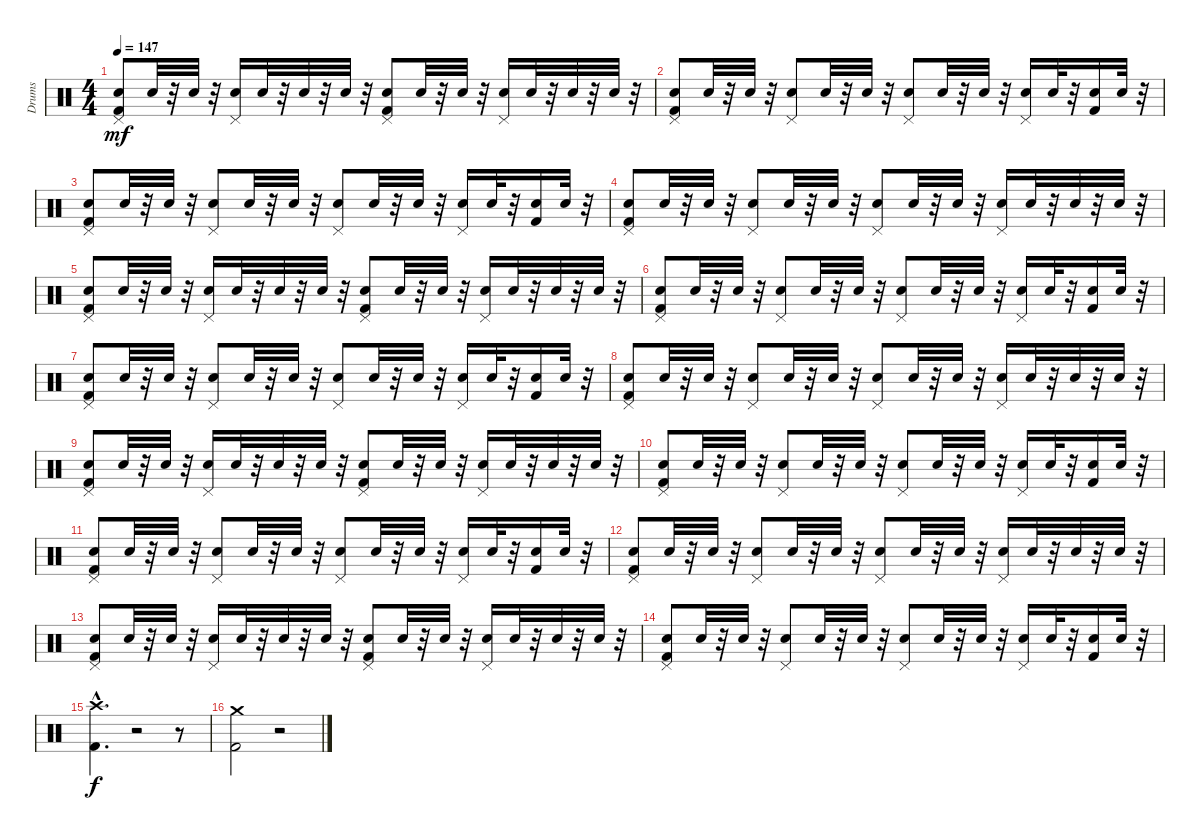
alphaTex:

\track ("Drums" "Drums") {instrument percussion}
\staff {score}
\articulation defaults
\ts (4 4)
\tempo 147
\clef neutral
\ks c
("Pedal Hi-Hat (hit)" "Kick (hit) 2" "Snare (hit) 2").8{dy mf} "Snare (hit) 2".32 r.32 "Snare (hit) 2".32 r.32 ("Pedal Hi-Hat (hit)" "Snare (hit) 2").16 "Snare (hit) 2".32 r.32 "Snare (hit) 2".32 r.32 "Snare (hit) 2".32 r.32 ("Pedal Hi-Hat (hit)" "Kick (hit) 2" "Snare (hit) 2").8 "Snare (hit) 2".32 r.32 "Snare (hit) 2".32 r.32 ("Pedal Hi-Hat (hit)" "Snare (hit) 2").16 "Snare (hit) 2".32 r.32 "Snare (hit) 2".32 r.32 "Snare (hit) 2".32 r.32 |
("Pedal Hi-Hat (hit)" "Kick (hit) 2" "Snare (hit) 2").8 "Snare (hit) 2".32 r.32 "Snare (hit) 2".32 r.32 ("Pedal Hi-Hat (hit)" "Snare (hit) 2").8 "Snare (hit) 2".32 r.32 "Snare (hit) 2".32 r.32 ("Pedal Hi-Hat (hit)" "Snare (hit) 2").8 "Snare (hit) 2".32 r.32 "Snare (hit) 2".32 r.32 ("Pedal Hi-Hat (hit)" "Snare (hit) 2").16 "Snare (hit) 2".32 r.32 ("Kick (hit) 2" "Snare (hit) 2").16 "Snare (hit) 2".32 r.32 |
("Pedal Hi-Hat (hit)" "Kick (hit) 2" "Snare (hit) 2").8 "Snare (hit) 2".32 r.32 "Snare (hit) 2".32 r.32 ("Pedal Hi-Hat (hit)" "Snare (hit) 2").8 "Snare (hit) 2".32 r.32 "Snare (hit) 2".32 r.32 ("Pedal Hi-Hat (hit)" "Snare (hit) 2").8 "Snare (hit) 2".32 r.32 "Snare (hit) 2".32 r.32 ("Pedal Hi-Hat (hit)" "Snare (hit) 2").16 "Snare (hit) 2".32 r.32 ("Kick (hit) 2" "Snare (hit) 2").16 "Snare (hit) 2".32 r.32 |
("Pedal Hi-Hat (hit)" "Kick (hit) 2" "Snare (hit) 2").8 "Snare (hit) 2".32 r.32 "Snare (hit) 2".32 r.32 ("Pedal Hi-Hat (hit)" "Snare (hit) 2").8 "Snare (hit) 2".32 r.32 "Snare (hit) 2".32 r.32 ("Pedal Hi-Hat (hit)" "Snare (hit) 2").8 "Snare (hit) 2".32 r.32 "Snare (hit) 2".32 r.32 ("Pedal Hi-Hat (hit)" "Snare (hit) 2").16 "Snare (hit) 2".32 r.32 "Snare (hit) 2".32 r.32 "Snare (hit) 2".32 r.32 |
("Pedal Hi-Hat (hit)" "Kick (hit) 2" "Snare (hit) 2").8 "Snare (hit) 2".32 r.32 "Snare (hit) 2".32 r.32 ("Pedal Hi-Hat (hit)" "Snare (hit) 2").16 "Snare (hit) 2".32 r.32 "Snare (hit) 2".32 r.32 "Snare (hit) 2".32 r.32 ("Pedal Hi-Hat (hit)" "Kick (hit) 2" "Snare (hit) 2").8 "Snare (hit) 2".32 r.32 "Snare (hit) 2".32 r.32 ("Pedal Hi-Hat (hit)" "Snare (hit) 2").16 "Snare (hit) 2".32 r.32 "Snare (hit) 2".32 r.32 "Snare (hit) 2".32 r.32 |
("Pedal Hi-Hat (hit)" "Kick (hit) 2" "Snare (hit) 2").8 "Snare (hit) 2".32 r.32 "Snare (hit) 2".32 r.32 ("Pedal Hi-Hat (hit)" "Snare (hit) 2").8 "Snare (hit) 2".32 r.32 "Snare (hit) 2".32 r.32 ("Pedal Hi-Hat (hit)" "Snare (hit) 2").8 "Snare (hit) 2".32 r.32 "Snare (hit) 2".32 r.32 ("Pedal Hi-Hat (hit)" "Snare (hit) 2").16 "Snare (hit) 2".32 r.32 ("Kick (hit) 2" "Snare (hit) 2").16 "Snare (hit) 2".32 r.32 |
("Pedal Hi-Hat (hit)" "Kick (hit) 2" "Snare (hit) 2").8 "Snare (hit) 2".32 r.32 "Snare (hit) 2".32 r.32 ("Pedal Hi-Hat (hit)" "Snare (hit) 2").8 "Snare (hit) 2".32 r.32 "Snare (hit) 2".32 r.32 ("Pedal Hi-Hat (hit)" "Snare (hit) 2").8 "Snare (hit) 2".32 r.32 "Snare (hit) 2".32 r.32 ("Pedal Hi-Hat (hit)" "Snare (hit) 2").16 "Snare (hit) 2".32 r.32 ("Kick (hit) 2" "Snare (hit) 2").16 "Snare (hit) 2".32 r.32 |
("Pedal Hi-Hat (hit)" "Kick (hit) 2" "Snare (hit) 2").8 "Snare (hit) 2".32 r.32 "Snare (hit) 2".32 r.32 ("Pedal Hi-Hat (hit)" "Snare (hit) 2").8 "Snare (hit) 2".32 r.32 "Snare (hit) 2".32 r.32 ("Pedal Hi-Hat (hit)" "Snare (hit) 2").8 "Snare (hit) 2".32 r.32 "Snare (hit) 2".32 r.32 ("Pedal Hi-Hat (hit)" "Snare (hit) 2").16 "Snare (hit) 2".32 r.32 "Snare (hit) 2".32 r.32 "Snare (hit) 2".32 r.32 |
("Pedal Hi-Hat (hit)" "Kick (hit) 2" "Snare (hit) 2").8 "Snare (hit) 2".32 r.32 "Snare (hit) 2".32 r.32 ("Pedal Hi-Hat (hit)" "Snare (hit) 2").16 "Snare (hit) 2".32 r.32 "Snare (hit) 2".32 r.32 "Snare (hit) 2".32 r.32 ("Pedal Hi-Hat (hit)" "Kick (hit) 2" "Snare (hit) 2").8 "Snare (hit) 2".32 r.32 "Snare (hit) 2".32 r.32 ("Pedal Hi-Hat (hit)" "Snare (hit) 2").16 "Snare (hit) 2".32 r.32 "Snare (hit) 2".32 r.32 "Snare (hit) 2".32 r.32 |
("Pedal Hi-Hat (hit)" "Kick (hit) 2" "Snare (hit) 2").8 "Snare (hit) 2".32 r.32 "Snare (hit) 2".32 r.32 ("Pedal Hi-Hat (hit)" "Snare (hit) 2").8 "Snare (hit) 2".32 r.32 "Snare (hit) 2".32 r.32 ("Pedal Hi-Hat (hit)" "Snare (hit) 2").8 "Snare (hit) 2".32 r.32 "Snare (hit) 2".32 r.32 ("Pedal Hi-Hat (hit)" "Snare (hit) 2").16 "Snare (hit) 2".32 r.32 ("Kick (hit) 2" "Snare (hit) 2").16 "Snare (hit) 2".32 r.32 |
("Pedal Hi-Hat (hit)" "Kick (hit) 2" "Snare (hit) 2").8 "Snare (hit) 2".32 r.32 "Snare (hit) 2".32 r.32 ("Pedal Hi-Hat (hit)" "Snare (hit) 2").8 "Snare (hit) 2".32 r.32 "Snare (hit) 2".32 r.32 ("Pedal Hi-Hat (hit)" "Snare (hit) 2").8 "Snare (hit) 2".32 r.32 "Snare (hit) 2".32 r.32 ("Pedal Hi-Hat (hit)" "Snare (hit) 2").16 "Snare (hit) 2".32 r.32 ("Kick (hit) 2" "Snare (hit) 2").16 "Snare (hit) 2".32 r.32 |
("Pedal Hi-Hat (hit)" "Kick (hit) 2" "Snare (hit) 2").8 "Snare (hit) 2".32 r.32 "Snare (hit) 2".32 r.32 ("Pedal Hi-Hat (hit)" "Snare (hit) 2").8 "Snare (hit) 2".32 r.32 "Snare (hit) 2".32 r.32 ("Pedal Hi-Hat (hit)" "Snare (hit) 2").8 "Snare (hit) 2".32 r.32 "Snare (hit) 2".32 r.32 ("Pedal Hi-Hat (hit)" "Snare (hit) 2").16 "Snare (hit) 2".32 r.32 "Snare (hit) 2".32 r.32 "Snare (hit) 2".32 r.32 |
("Pedal Hi-Hat (hit)" "Kick (hit) 2" "Snare (hit) 2").8 "Snare (hit) 2".32 r.32 "Snare (hit) 2".32 r.32 ("Pedal Hi-Hat (hit)" "Snare (hit) 2").16 "Snare (hit) 2".32 r.32 "Snare (hit) 2".32 r.32 "Snare (hit) 2".32 r.32 ("Pedal Hi-Hat (hit)" "Kick (hit) 2" "Snare (hit) 2").8 "Snare (hit) 2".32 r.32 "Snare (hit) 2".32 r.32 ("Pedal Hi-Hat (hit)" "Snare (hit) 2").16 "Snare (hit) 2".32 r.32 "Snare (hit) 2".32 r.32 "Snare (hit) 2".32 r.32 |
("Pedal Hi-Hat (hit)" "Kick (hit) 2" "Snare (hit) 2").8 "Snare (hit) 2".32 r.32 "Snare (hit) 2".32 r.32 ("Pedal Hi-Hat (hit)" "Snare (hit) 2").8 "Snare (hit) 2".32 r.32 "Snare (hit) 2".32 r.32 ("Pedal Hi-Hat (hit)" "Snare (hit) 2").8 "Snare (hit) 2".32 r.32 "Snare (hit) 2".32 r.32 ("Pedal Hi-Hat (hit)" "Snare (hit) 2").16 "Snare (hit) 2".32 r.32 ("Kick (hit) 2" "Snare (hit) 2").16 "Snare (hit) 2".32 r.32 |
("Kick (hit) 2" "Crash high (hit)"{hac}).4{d dy f} r.2 r.8 |
("Kick (hit) 2" "Crash medium (hit)").2 r.2
